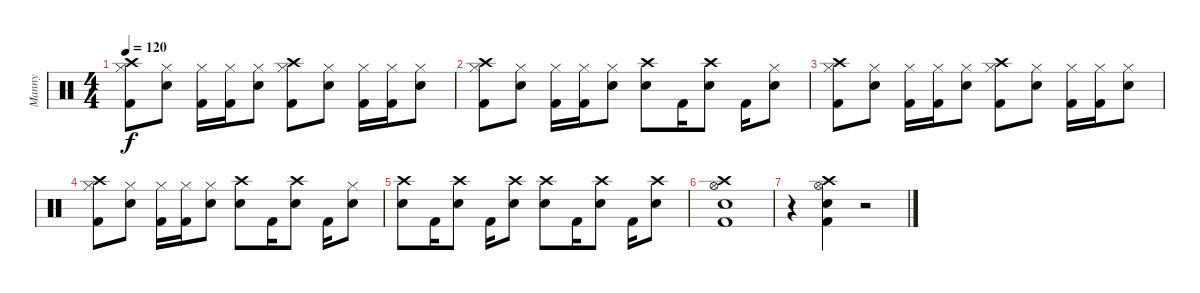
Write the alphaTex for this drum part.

\track ("Manny" "Manny") {instrument percussion}
\staff {score}
\articulation defaults
\ts (4 4)
\tempo 120
\clef neutral
\ks c
("Kick (hit) 2" "Crash high (hit)" "Hi-Hat (closed)").8{dy f} ("Snare (hit) 2" "Hi-Hat (closed)").8 ("Kick (hit) 2" "Hi-Hat (closed)").16 ("Kick (hit) 2" "Hi-Hat (closed)").16 ("Snare (hit) 2" "Hi-Hat (closed)").8 ("Kick (hit) 2" "Crash high (hit)" "Hi-Hat (closed)").8 ("Snare (hit) 2" "Hi-Hat (closed)").8 ("Kick (hit) 2" "Hi-Hat (closed)").16 ("Kick (hit) 2" "Hi-Hat (closed)").16 ("Snare (hit) 2" "Hi-Hat (closed)").8 |
("Kick (hit) 2" "Crash high (hit)" "Hi-Hat (closed)").8 ("Snare (hit) 2" "Hi-Hat (closed)").8 ("Kick (hit) 2" "Hi-Hat (closed)").16 ("Kick (hit) 2" "Hi-Hat (closed)").16 ("Snare (hit) 2" "Hi-Hat (closed)").8 ("Snare (hit) 2" "Crash high (hit)").8 "Kick (hit) 2".16 ("Snare (hit) 2" "Crash high (hit)").8 "Kick (hit) 2".16 ("Snare (hit) 2" "Hi-Hat (closed)").8 |
("Kick (hit) 2" "Crash high (hit)" "Hi-Hat (closed)").8 ("Snare (hit) 2" "Hi-Hat (closed)").8 ("Kick (hit) 2" "Hi-Hat (closed)").16 ("Kick (hit) 2" "Hi-Hat (closed)").16 ("Snare (hit) 2" "Hi-Hat (closed)").8 ("Kick (hit) 2" "Crash high (hit)" "Hi-Hat (closed)").8 ("Snare (hit) 2" "Hi-Hat (closed)").8 ("Kick (hit) 2" "Hi-Hat (closed)").16 ("Kick (hit) 2" "Hi-Hat (closed)").16 ("Snare (hit) 2" "Hi-Hat (closed)").8 |
("Kick (hit) 2" "Crash high (hit)" "Hi-Hat (closed)").8 ("Snare (hit) 2" "Hi-Hat (closed)").8 ("Kick (hit) 2" "Hi-Hat (closed)").16 ("Kick (hit) 2" "Hi-Hat (closed)").16 ("Snare (hit) 2" "Hi-Hat (closed)").8 ("Snare (hit) 2" "Crash high (hit)").8 "Kick (hit) 2".16 ("Snare (hit) 2" "Crash high (hit)").8 "Kick (hit) 2".16 ("Snare (hit) 2" "Hi-Hat (closed)").8 |
("Snare (hit) 2" "Crash high (hit)").8 "Kick (hit) 2".16 ("Snare (hit) 2" "Crash high (hit)").8 "Kick (hit) 2".16 ("Snare (hit) 2" "Crash high (hit)").8 ("Snare (hit) 2" "Crash high (hit)").8 "Kick (hit) 2".16 ("Snare (hit) 2" "Crash high (hit)").8 "Kick (hit) 2".16 ("Snare (hit) 2" "Crash high (hit)").8 |
("Kick (hit) 2" "Snare (hit) 2" "Crash high (hit)" "Hi-Hat (open)").1 |
r.4 ("Kick (hit) 2" "Snare (hit) 2" "Crash high (hit)" "Hi-Hat (open)").4 r.2
